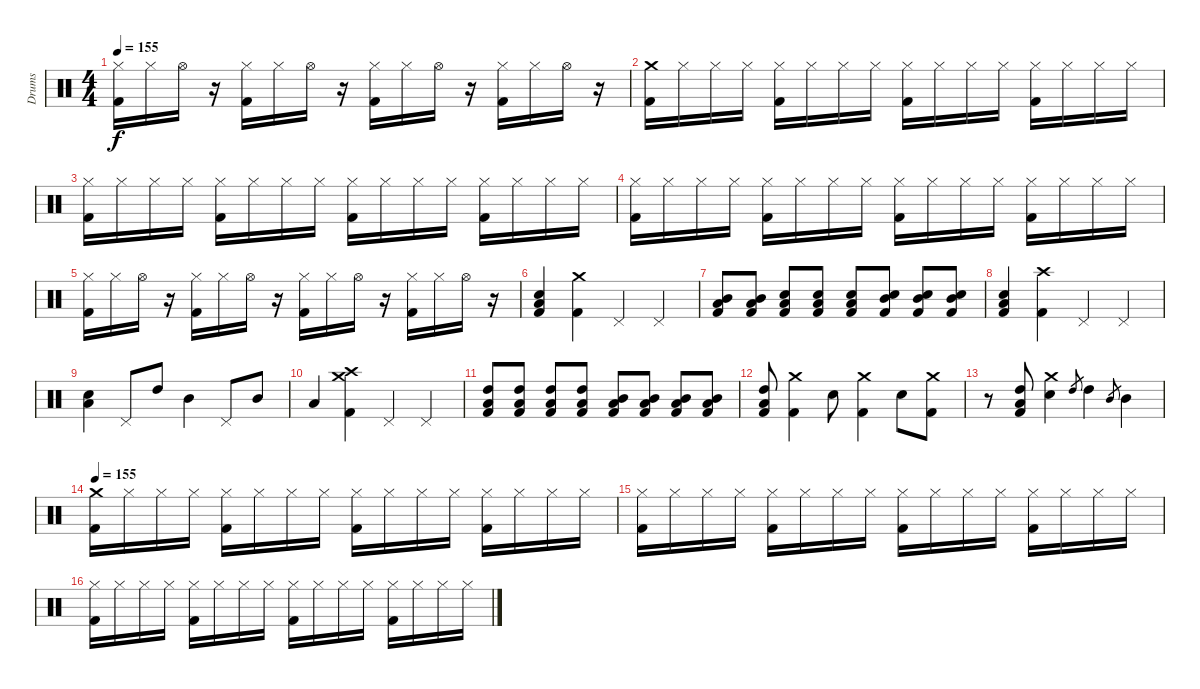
\track ("Drums" "Drums") {instrument percussion}
\staff {score}
\articulation defaults
\ts (4 4)
\tempo 155
\clef neutral
\ks c
("Hi-Hat (closed)" "Kick (hit) 2").16{dy f} "Hi-Hat (closed)".16 "Hi-Hat (open)".16 r.16 ("Hi-Hat (closed)" "Kick (hit) 2").16 "Hi-Hat (closed)".16 "Hi-Hat (open)".16 r.16 ("Hi-Hat (closed)" "Kick (hit) 2").16 "Hi-Hat (closed)".16 "Hi-Hat (open)".16 r.16 ("Hi-Hat (closed)" "Kick (hit) 2").16 "Hi-Hat (closed)".16 "Hi-Hat (open)".16 r.16 |
("Crash medium (hit)" "Kick (hit) 2").16 "Hi-Hat (closed)".16 "Hi-Hat (closed)".16 "Hi-Hat (closed)".16 ("Hi-Hat (closed)" "Kick (hit) 2").16 "Hi-Hat (closed)".16 "Hi-Hat (closed)".16 "Hi-Hat (closed)".16 ("Hi-Hat (closed)" "Kick (hit) 2").16 "Hi-Hat (closed)".16 "Hi-Hat (closed)".16 "Hi-Hat (closed)".16 ("Hi-Hat (closed)" "Kick (hit) 2").16 "Hi-Hat (closed)".16 "Hi-Hat (closed)".16 "Hi-Hat (closed)".16 |
("Hi-Hat (closed)" "Kick (hit) 2").16 "Hi-Hat (closed)".16 "Hi-Hat (closed)".16 "Hi-Hat (closed)".16 ("Hi-Hat (closed)" "Kick (hit) 2").16 "Hi-Hat (closed)".16 "Hi-Hat (closed)".16 "Hi-Hat (closed)".16 ("Hi-Hat (closed)" "Kick (hit) 2").16 "Hi-Hat (closed)".16 "Hi-Hat (closed)".16 "Hi-Hat (closed)".16 ("Hi-Hat (closed)" "Kick (hit) 2").16 "Hi-Hat (closed)".16 "Hi-Hat (closed)".16 "Hi-Hat (closed)".16 |
("Hi-Hat (closed)" "Kick (hit) 2").16 "Hi-Hat (closed)".16 "Hi-Hat (closed)".16 "Hi-Hat (closed)".16 ("Hi-Hat (closed)" "Kick (hit) 2").16 "Hi-Hat (closed)".16 "Hi-Hat (closed)".16 "Hi-Hat (closed)".16 ("Hi-Hat (closed)" "Kick (hit) 2").16 "Hi-Hat (closed)".16 "Hi-Hat (closed)".16 "Hi-Hat (closed)".16 ("Hi-Hat (closed)" "Kick (hit) 2").16 "Hi-Hat (closed)".16 "Hi-Hat (closed)".16 "Hi-Hat (closed)".16 |
("Hi-Hat (closed)" "Kick (hit) 2").16 "Hi-Hat (closed)".16 "Hi-Hat (open)".16 r.16 ("Hi-Hat (closed)" "Kick (hit) 2").16 "Hi-Hat (closed)".16 "Hi-Hat (open)".16 r.16 ("Hi-Hat (closed)" "Kick (hit) 2").16 "Hi-Hat (closed)".16 "Hi-Hat (open)".16 r.16 ("Hi-Hat (closed)" "Kick (hit) 2").16 "Hi-Hat (closed)".16 "Hi-Hat (open)".16 r.16 |
("Kick (hit) 2" "Electric Snare (hit)" "Low Tom (hit)").4 ("Crash medium (hit)" "Kick (hit) 2").4 "Pedal Hi-Hat (hit)".4 "Pedal Hi-Hat (hit)".4 |
("Kick (hit) 2" "Low Tom (hit)" "Mid Tom (hit)").8 ("Kick (hit) 2" "Low Tom (hit)" "Mid Tom (hit)").8 ("Kick (hit) 2" "Electric Snare (hit)" "Low Tom (hit)").8 ("Kick (hit) 2" "Electric Snare (hit)" "Low Tom (hit)").8 ("Kick (hit) 2" "Electric Snare (hit)" "Low Tom (hit)").8 ("Kick (hit) 2" "Electric Snare (hit)" "Mid Tom (hit)").8 ("Kick (hit) 2" "Electric Snare (hit)" "Mid Tom (hit)").8 ("Kick (hit) 2" "Electric Snare (hit)" "Mid Tom (hit)").8 |
("Kick (hit) 2" "Electric Snare (hit)" "Low Tom (hit)").4 ("Crash high (hit)" "Kick (hit) 2").4 "Pedal Hi-Hat (hit)".4 "Pedal Hi-Hat (hit)".4 |
("Electric Snare (hit)" "Low Tom (hit)").4 "Pedal Hi-Hat (hit)".8 "High Tom (hit)".8 "Mid Tom (hit)".4 "Pedal Hi-Hat (hit)".8 "Mid Tom (hit)".8 |
"Low Tom (hit)".4 ("Crash medium (hit)" "Kick (hit) 2" "Crash high (hit)").4 "Pedal Hi-Hat (hit)".4 "Pedal Hi-Hat (hit)".4 |
("Kick (hit) 2" "Low Tom (hit)" "High Tom (hit)").8 ("Kick (hit) 2" "Low Tom (hit)" "High Tom (hit)").8 ("Kick (hit) 2" "Low Tom (hit)" "High Tom (hit)").8 ("Kick (hit) 2" "Low Tom (hit)" "High Tom (hit)").8 ("Kick (hit) 2" "Low Tom (hit)" "Mid Tom (hit)").8 ("Kick (hit) 2" "Low Tom (hit)" "Mid Tom (hit)").8 ("Kick (hit) 2" "Low Tom (hit)" "Mid Tom (hit)").8 ("Kick (hit) 2" "Low Tom (hit)" "Mid Tom (hit)").8 |
("Kick (hit) 2" "Low Tom (hit)" "High Tom (hit)").8 ("Crash medium (hit)" "Kick (hit) 2").4 "Electric Snare (hit)".8 ("Crash medium (hit)" "Kick (hit) 2").4 "Electric Snare (hit)".8 ("Crash medium (hit)" "Kick (hit) 2").8 |
r.8 ("Kick (hit) 2" "Low Tom (hit)" "High Tom (hit)").8 ("Crash medium (hit)" "Electric Snare (hit)").4 "High Tom (hit)".8{gr} "High Tom (hit)".4 "Mid Tom (hit)".8{gr} "Mid Tom (hit)".4 |
\tempo 155
("Crash medium (hit)" "Kick (hit) 2").16 "Hi-Hat (closed)".16 "Hi-Hat (closed)".16 "Hi-Hat (closed)".16 ("Hi-Hat (closed)" "Kick (hit) 2").16 "Hi-Hat (closed)".16 "Hi-Hat (closed)".16 "Hi-Hat (closed)".16 ("Hi-Hat (closed)" "Kick (hit) 2").16 "Hi-Hat (closed)".16 "Hi-Hat (closed)".16 "Hi-Hat (closed)".16 ("Hi-Hat (closed)" "Kick (hit) 2").16 "Hi-Hat (closed)".16 "Hi-Hat (closed)".16 "Hi-Hat (closed)".16 |
("Hi-Hat (closed)" "Kick (hit) 2").16 "Hi-Hat (closed)".16 "Hi-Hat (closed)".16 "Hi-Hat (closed)".16 ("Hi-Hat (closed)" "Kick (hit) 2").16 "Hi-Hat (closed)".16 "Hi-Hat (closed)".16 "Hi-Hat (closed)".16 ("Hi-Hat (closed)" "Kick (hit) 2").16 "Hi-Hat (closed)".16 "Hi-Hat (closed)".16 "Hi-Hat (closed)".16 ("Hi-Hat (closed)" "Kick (hit) 2").16 "Hi-Hat (closed)".16 "Hi-Hat (closed)".16 "Hi-Hat (closed)".16 |
("Hi-Hat (closed)" "Kick (hit) 2").16 "Hi-Hat (closed)".16 "Hi-Hat (closed)".16 "Hi-Hat (closed)".16 ("Hi-Hat (closed)" "Kick (hit) 2").16 "Hi-Hat (closed)".16 "Hi-Hat (closed)".16 "Hi-Hat (closed)".16 ("Hi-Hat (closed)" "Kick (hit) 2").16 "Hi-Hat (closed)".16 "Hi-Hat (closed)".16 "Hi-Hat (closed)".16 ("Hi-Hat (closed)" "Kick (hit) 2").16 "Hi-Hat (closed)".16 "Hi-Hat (closed)".16 "Hi-Hat (closed)".16
